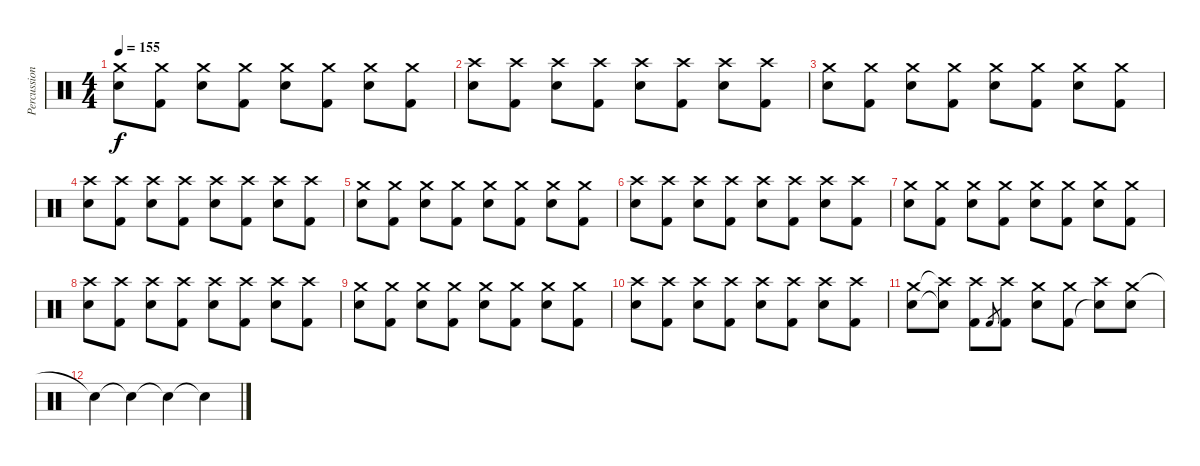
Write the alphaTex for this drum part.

\track ("Percussioni" "Percussion") {instrument percussion}
\staff {score}
\articulation defaults
\ts (4 4)
\tempo 155
\clef neutral
\ks c
("Crash medium (hit)" "Snare (hit) 2").8{dy f} ("Crash medium (hit)" "Kick (hit) 2").8 ("Crash medium (hit)" "Snare (hit) 2").8 ("Crash medium (hit)" "Kick (hit) 2").8 ("Crash medium (hit)" "Snare (hit) 2").8 ("Crash medium (hit)" "Kick (hit) 2").8 ("Crash medium (hit)" "Snare (hit) 2").8 ("Crash medium (hit)" "Kick (hit) 2").8 |
("Crash high (hit)" "Snare (hit) 2").8 ("Crash high (hit)" "Kick (hit) 2").8 ("Crash high (hit)" "Snare (hit) 2").8 ("Crash high (hit)" "Kick (hit) 2").8 ("Crash high (hit)" "Snare (hit) 2").8 ("Crash high (hit)" "Kick (hit) 2").8 ("Crash high (hit)" "Snare (hit) 2").8 ("Crash high (hit)" "Kick (hit) 2").8 |
("Crash medium (hit)" "Snare (hit) 2").8 ("Crash medium (hit)" "Kick (hit) 2").8 ("Crash medium (hit)" "Snare (hit) 2").8 ("Crash medium (hit)" "Kick (hit) 2").8 ("Crash medium (hit)" "Snare (hit) 2").8 ("Crash medium (hit)" "Kick (hit) 2").8 ("Crash medium (hit)" "Snare (hit) 2").8 ("Crash medium (hit)" "Kick (hit) 2").8 |
("Crash high (hit)" "Snare (hit) 2").8 ("Crash high (hit)" "Kick (hit) 2").8 ("Crash high (hit)" "Snare (hit) 2").8 ("Crash high (hit)" "Kick (hit) 2").8 ("Crash high (hit)" "Snare (hit) 2").8 ("Crash high (hit)" "Kick (hit) 2").8 ("Crash high (hit)" "Snare (hit) 2").8 ("Crash high (hit)" "Kick (hit) 2").8 |
("Crash medium (hit)" "Snare (hit) 2").8 ("Crash medium (hit)" "Kick (hit) 2").8 ("Crash medium (hit)" "Snare (hit) 2").8 ("Crash medium (hit)" "Kick (hit) 2").8 ("Crash medium (hit)" "Snare (hit) 2").8 ("Crash medium (hit)" "Kick (hit) 2").8 ("Crash medium (hit)" "Snare (hit) 2").8 ("Crash medium (hit)" "Kick (hit) 2").8 |
("Crash high (hit)" "Snare (hit) 2").8 ("Crash high (hit)" "Kick (hit) 2").8 ("Crash high (hit)" "Snare (hit) 2").8 ("Crash high (hit)" "Kick (hit) 2").8 ("Crash high (hit)" "Snare (hit) 2").8 ("Crash high (hit)" "Kick (hit) 2").8 ("Crash high (hit)" "Snare (hit) 2").8 ("Crash high (hit)" "Kick (hit) 2").8 |
("Crash medium (hit)" "Snare (hit) 2").8 ("Crash medium (hit)" "Kick (hit) 2").8 ("Crash medium (hit)" "Snare (hit) 2").8 ("Crash medium (hit)" "Kick (hit) 2").8 ("Crash medium (hit)" "Snare (hit) 2").8 ("Crash medium (hit)" "Kick (hit) 2").8 ("Crash medium (hit)" "Snare (hit) 2").8 ("Crash medium (hit)" "Kick (hit) 2").8 |
("Crash high (hit)" "Snare (hit) 2").8 ("Crash high (hit)" "Kick (hit) 2").8 ("Crash high (hit)" "Snare (hit) 2").8 ("Crash high (hit)" "Kick (hit) 2").8 ("Crash high (hit)" "Snare (hit) 2").8 ("Crash high (hit)" "Kick (hit) 2").8 ("Crash high (hit)" "Snare (hit) 2").8 ("Crash high (hit)" "Kick (hit) 2").8 |
("Crash medium (hit)" "Snare (hit) 2").8 ("Crash medium (hit)" "Kick (hit) 2").8 ("Crash medium (hit)" "Snare (hit) 2").8 ("Crash medium (hit)" "Kick (hit) 2").8 ("Crash medium (hit)" "Snare (hit) 2").8 ("Crash medium (hit)" "Kick (hit) 2").8 ("Crash medium (hit)" "Snare (hit) 2").8 ("Crash medium (hit)" "Kick (hit) 2").8 |
("Crash high (hit)" "Snare (hit) 2").8 ("Crash high (hit)" "Kick (hit) 2").8 ("Crash high (hit)" "Snare (hit) 2").8 ("Crash high (hit)" "Kick (hit) 2").8 ("Crash high (hit)" "Snare (hit) 2").8 ("Crash high (hit)" "Kick (hit) 2").8 ("Crash high (hit)" "Snare (hit) 2").8 ("Crash high (hit)" "Kick (hit) 2").8 |
("Crash medium (hit)" "Snare (hit) 2").8 ("Crash high (hit)"{t} "Snare (hit)"{t}).8 ("Crash high (hit)" "Kick (hit) 2").8 "Kick (hit) 2".8{gr} ("Crash high (hit)" "Kick (hit) 2").8 ("Crash medium (hit)" "Snare (hit) 2").8 ("Crash medium (hit)" "Kick (hit) 2").8 ("Crash high (hit)" "Snare (hit)"{t}).8 ("Crash medium (hit)" "Snare (hit) 2").8 |
"Snare (hit)"{t}.4 "Snare (hit)"{t}.4 "Snare (hit)"{t}.4 "Snare (hit)"{t}.4
